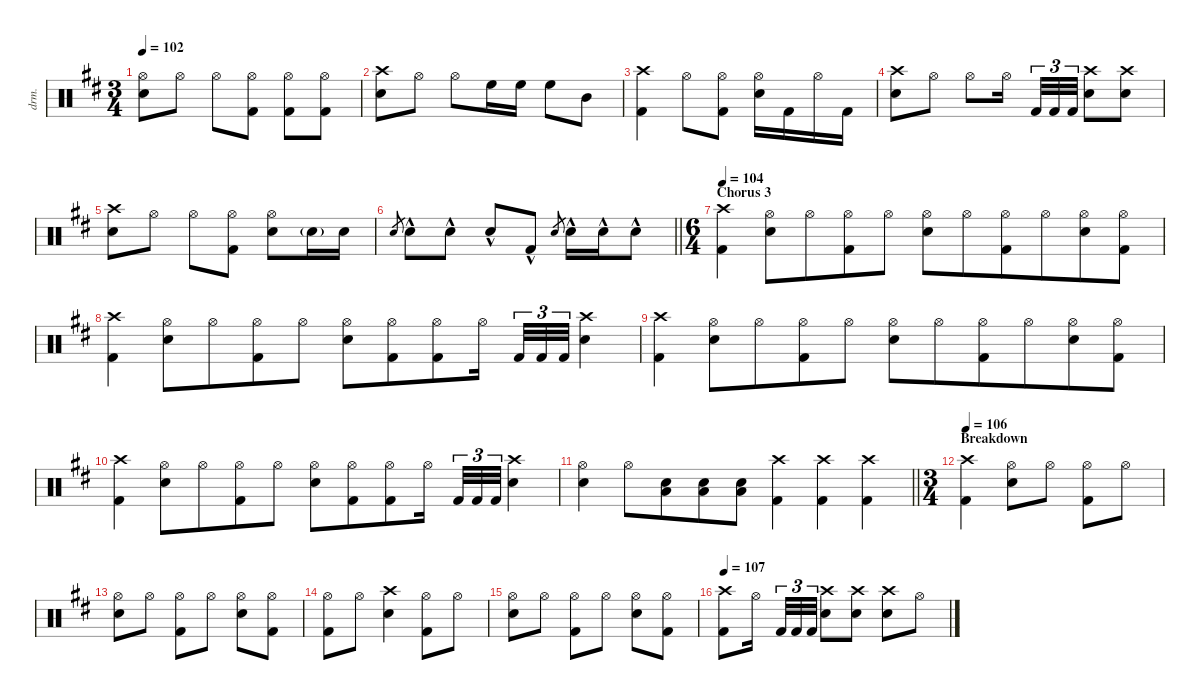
\defaultSystemsLayout 4
\hideDynamics
\bracketExtendMode nobrackets
\otherSystemsTrackNameOrientation horizontal
\track ("Lars Ulrich" "drm.") {defaultSystemsLayout 4 instrument percussion}
\staff {score}
\articulation defaults
\ts (3 4)
\tempo 102
\clef neutral
\ks bminor
("Hi-Hat (open)"{acc forcenatural} "Snare (hit) 2"{acc forcenatural}).8{dy mf} "Hi-Hat (open)"{acc forcenatural}.8 "Hi-Hat (open)"{acc forcenatural}.8 ("Hi-Hat (open)"{acc forcenatural} "Kick (hit) 2"{acc forcenatural}).8 ("Hi-Hat (open)"{acc forcenatural} "Kick (hit) 2"{acc forcenatural}).8 ("Hi-Hat (open)"{acc forcenatural} "Kick (hit) 2"{acc forcenatural}).8 |
("Crash high (hit)"{acc forcenatural} "Snare (hit) 2"{acc forcenatural}).8{dy f} "Hi-Hat (open)"{acc forcenatural}.8{dy mf} "Hi-Hat (open)"{acc forcenatural}.8 "High Floor Tom (hit)"{acc forcenatural}.16{dy f} "High Floor Tom (hit)"{acc forcenatural}.16{dy fff} "High Floor Tom (hit)"{acc forcenatural}.8 "Mid Tom (hit)"{acc forcenatural}.8 |
("Crash high (hit)"{acc forcenatural} "Kick (hit) 2"{acc forcenatural}).4{dy f} "Hi-Hat (open)"{acc forcenatural}.8{dy mf} ("Hi-Hat (open)"{acc forcenatural} "Kick (hit) 2"{acc forcenatural}).8 ("Hi-Hat (open)"{acc forcenatural} "Snare (hit) 2"{acc forcenatural}).16 "Kick (hit) 2"{acc forcenatural}.16{dy fff} "Hi-Hat (open)"{acc forcenatural}.16{dy mf} "Kick (hit) 2"{acc forcenatural}.16{dy fff} |
("Crash high (hit)"{acc forcenatural} "Snare (hit) 2"{acc forcenatural}).8{dy f} "Hi-Hat (open)"{acc forcenatural}.8{dy mf} "Hi-Hat (open)"{acc forcenatural}.8 "Hi-Hat (open)"{acc forcenatural}.16 "Kick (hit) 2"{acc forcenatural}.32{tu (3 2) dy fff} "Kick (hit) 2"{acc forcenatural}.32{tu (3 2)} "Kick (hit) 2"{acc forcenatural}.32{tu (3 2)} ("Crash high (hit)"{acc forcenatural} "Snare (hit) 2"{acc forcenatural}).8{dy f} ("Crash high (hit)"{acc forcenatural} "Snare (hit) 2"{acc forcenatural}).8 |
("Crash high (hit)"{acc forcenatural} "Snare (hit) 2"{acc forcenatural}).8 "Hi-Hat (open)"{acc forcenatural}.8{dy mf} "Hi-Hat (open)"{acc forcenatural}.8 ("Hi-Hat (open)"{acc forcenatural} "Kick (hit) 2"{acc forcenatural}).8 ("Hi-Hat (open)"{acc forcenatural} "Snare (hit) 2"{acc forcenatural}).8 "Snare (hit) 2"{g acc forcenatural}.16{dy ff} "Snare (hit) 2"{acc forcenatural}.16{dy fff} |
\barLineRight lightlight "Electric Snare (hit)"{acc forcenatural}.8{gr dy mp} "Snare (hit) 2"{hac acc forcenatural}.8{dy f} "Snare (hit) 2"{hac acc forcenatural}.8 "Snare (hit) 2"{hac acc forcenatural}.8 "Kick (hit) 2"{hac acc forcenatural}.8 "Electric Snare (hit)"{acc forcenatural}.8{gr dy mp} "Snare (hit) 2"{hac acc forcenatural}.16{dy f} "Snare (hit) 2"{hac acc forcenatural}.16 "Snare (hit) 2"{hac acc forcenatural}.8
|
\ts (6 4)
\beaming (8 6 6)
\section ("" "Chorus 3")
\tempo 104
("Crash high (hit)"{acc forcenatural} "Kick (hit) 2"{acc forcenatural}).4 ("Hi-Hat (open)"{acc forcenatural} "Snare (hit) 2"{acc forcenatural}).8 "Hi-Hat (open)"{acc forcenatural}.8 ("Hi-Hat (open)"{acc forcenatural} "Kick (hit) 2"{acc forcenatural}).8 "Hi-Hat (open)"{acc forcenatural}.8 ("Hi-Hat (open)"{acc forcenatural} "Snare (hit) 2"{acc forcenatural}).8 "Hi-Hat (open)"{acc forcenatural}.8 ("Hi-Hat (open)"{acc forcenatural} "Kick (hit) 2"{acc forcenatural}).8 "Hi-Hat (open)"{acc forcenatural}.8 ("Hi-Hat (open)"{acc forcenatural} "Snare (hit) 2"{acc forcenatural}).8 ("Hi-Hat (open)"{acc forcenatural} "Kick (hit) 2"{acc forcenatural}).8 |
("Crash high (hit)"{acc forcenatural} "Kick (hit) 2"{acc forcenatural}).4 ("Hi-Hat (open)"{acc forcenatural} "Snare (hit) 2"{acc forcenatural}).8 "Hi-Hat (open)"{acc forcenatural}.8 ("Hi-Hat (open)"{acc forcenatural} "Kick (hit) 2"{acc forcenatural}).8 "Hi-Hat (open)"{acc forcenatural}.8 ("Hi-Hat (open)"{acc forcenatural} "Snare (hit) 2"{acc forcenatural}).8 ("Hi-Hat (open)"{acc forcenatural} "Kick (hit) 2"{acc forcenatural}).8 ("Hi-Hat (open)"{acc forcenatural} "Kick (hit) 2"{acc forcenatural}).8 "Hi-Hat (open)"{acc forcenatural}.16 "Kick (hit) 2"{acc forcenatural}.32{tu (3 2) dy fff} "Kick (hit) 2"{acc forcenatural}.32{tu (3 2)} "Kick (hit) 2"{acc forcenatural}.32{tu (3 2)} ("Crash high (hit)"{acc forcenatural} "Snare (hit) 2"{acc forcenatural}).4{dy f} |
("Crash high (hit)"{acc forcenatural} "Kick (hit) 2"{acc forcenatural}).4 ("Hi-Hat (open)"{acc forcenatural} "Snare (hit) 2"{acc forcenatural}).8 "Hi-Hat (open)"{acc forcenatural}.8 ("Hi-Hat (open)"{acc forcenatural} "Kick (hit) 2"{acc forcenatural}).8 "Hi-Hat (open)"{acc forcenatural}.8 ("Hi-Hat (open)"{acc forcenatural} "Snare (hit) 2"{acc forcenatural}).8 "Hi-Hat (open)"{acc forcenatural}.8 ("Hi-Hat (open)"{acc forcenatural} "Kick (hit) 2"{acc forcenatural}).8 "Hi-Hat (open)"{acc forcenatural}.8 ("Hi-Hat (open)"{acc forcenatural} "Snare (hit) 2"{acc forcenatural}).8 ("Hi-Hat (open)"{acc forcenatural} "Kick (hit) 2"{acc forcenatural}).8 |
("Crash high (hit)"{acc forcenatural} "Kick (hit) 2"{acc forcenatural}).4 ("Hi-Hat (open)"{acc forcenatural} "Snare (hit) 2"{acc forcenatural}).8 "Hi-Hat (open)"{acc forcenatural}.8 ("Hi-Hat (open)"{acc forcenatural} "Kick (hit) 2"{acc forcenatural}).8 "Hi-Hat (open)"{acc forcenatural}.8 ("Hi-Hat (open)"{acc forcenatural} "Snare (hit) 2"{acc forcenatural}).8 ("Hi-Hat (open)"{acc forcenatural} "Kick (hit) 2"{acc forcenatural}).8 ("Hi-Hat (open)"{acc forcenatural} "Kick (hit) 2"{acc forcenatural}).8 "Hi-Hat (open)"{acc forcenatural}.16 "Kick (hit) 2"{acc forcenatural}.32{tu (3 2) dy fff} "Kick (hit) 2"{acc forcenatural}.32{tu (3 2)} "Kick (hit) 2"{acc forcenatural}.32{tu (3 2)} ("Crash high (hit)"{acc forcenatural} "Snare (hit) 2"{acc forcenatural}).4{dy f} |
\barLineRight lightlight
("Hi-Hat (open)"{acc forcenatural} "Snare (hit) 2"{acc forcenatural}).4 "Hi-Hat (open)"{acc forcenatural}.8 ("Snare (hit) 2"{acc forcenatural} "Low Floor Tom (hit)"{acc forcenatural}).8 ("Snare (hit) 2"{acc forcenatural} "Low Floor Tom (hit)"{acc forcenatural}).8 ("Snare (hit) 2"{acc forcenatural} "Low Floor Tom (hit)"{acc forcenatural}).8 ("Crash high (hit)"{acc forcenatural} "Kick (hit) 2"{acc forcenatural}).4 ("Crash high (hit)"{acc forcenatural} "Kick (hit) 2"{acc forcenatural}).4 ("Crash high (hit)"{acc forcenatural} "Kick (hit) 2"{acc forcenatural}).4 |
\ts (3 4)
\beaming (8 2 2 2)
\section ("" "Breakdown")
\tempo 106
("Crash high (hit)"{acc forcenatural} "Kick (hit) 2"{acc forcenatural}).4 ("Hi-Hat (open)"{acc forcenatural} "Snare (hit) 2"{acc forcenatural}).8 "Hi-Hat (open)"{acc forcenatural}.8 ("Hi-Hat (open)"{acc forcenatural} "Kick (hit) 2"{acc forcenatural}).8 "Hi-Hat (open)"{acc forcenatural}.8 |
("Hi-Hat (open)"{acc forcenatural} "Snare (hit) 2"{acc forcenatural}).8 "Hi-Hat (open)"{acc forcenatural}.8 ("Hi-Hat (open)"{acc forcenatural} "Kick (hit) 2"{acc forcenatural}).8 "Hi-Hat (open)"{acc forcenatural}.8 ("Hi-Hat (open)"{acc forcenatural} "Snare (hit) 2"{acc forcenatural}).8 ("Hi-Hat (open)"{acc forcenatural} "Kick (hit) 2"{acc forcenatural}).8 |
("Hi-Hat (open)"{acc forcenatural} "Kick (hit) 2"{acc forcenatural}).8 "Hi-Hat (open)"{acc forcenatural}.8 ("Crash high (hit)"{acc forcenatural} "Snare (hit) 2"{acc forcenatural}).4 ("Hi-Hat (open)"{acc forcenatural} "Kick (hit) 2"{acc forcenatural}).8 "Hi-Hat (open)"{acc forcenatural}.8 |
("Hi-Hat (open)"{acc forcenatural} "Snare (hit) 2"{acc forcenatural}).8 "Hi-Hat (open)"{acc forcenatural}.8 ("Hi-Hat (open)"{acc forcenatural} "Kick (hit) 2"{acc forcenatural}).8 "Hi-Hat (open)"{acc forcenatural}.8 ("Hi-Hat (open)"{acc forcenatural} "Snare (hit) 2"{acc forcenatural}).8 ("Hi-Hat (open)"{acc forcenatural} "Kick (hit) 2"{acc forcenatural}).8 |
\tempo 107
("Crash high (hit)"{acc forcenatural} "Kick (hit) 2"{acc forcenatural}).8 "Hi-Hat (open)"{acc forcenatural}.16 "Kick (hit) 2"{acc forcenatural}.32{tu (3 2) dy fff} "Kick (hit) 2"{acc forcenatural}.32{tu (3 2)} "Kick (hit) 2"{acc forcenatural}.32{tu (3 2)} ("Crash high (hit)"{acc forcenatural} "Snare (hit) 2"{acc forcenatural}).8{dy f} ("Crash high (hit)"{acc forcenatural} "Snare (hit) 2"{acc forcenatural}).8 ("Crash high (hit)"{acc forcenatural} "Snare (hit) 2"{acc forcenatural}).8 "Hi-Hat (open)"{acc forcenatural}.8
